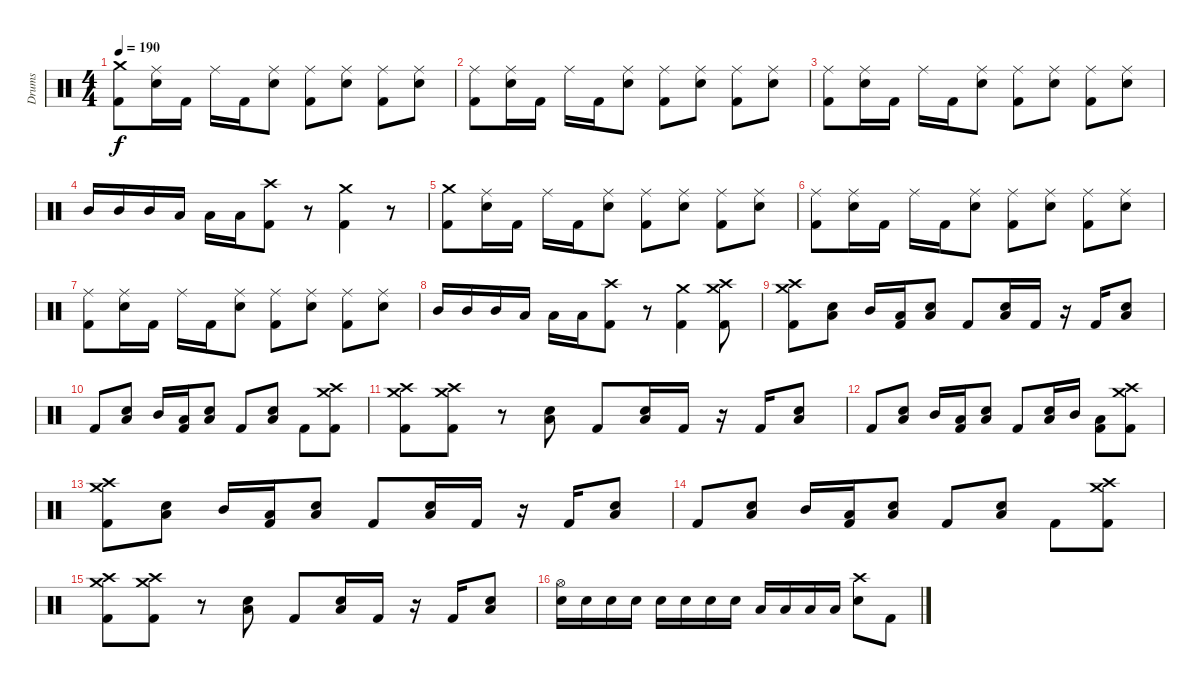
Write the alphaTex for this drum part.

\track ("Drums" "Drums") {instrument percussion}
\staff {score}
\articulation defaults
\ts (4 4)
\tempo 190
\clef neutral
\ks c
("Crash medium (hit)" "Kick (hit) 2").8{dy f} ("Ride (middle)" "Electric Snare (hit)").16 "Kick (hit) 2".16 "Ride (middle)".16 "Kick (hit) 2".16 ("Ride (middle)" "Electric Snare (hit)").8 ("Ride (middle)" "Kick (hit) 2").8 ("Ride (middle)" "Electric Snare (hit)").8 ("Ride (middle)" "Kick (hit) 2").8 ("Ride (middle)" "Electric Snare (hit)").8 |
("Ride (middle)" "Kick (hit) 2").8 ("Ride (middle)" "Electric Snare (hit)").16 "Kick (hit) 2".16 "Ride (middle)".16 "Kick (hit) 2".16 ("Ride (middle)" "Electric Snare (hit)").8 ("Ride (middle)" "Kick (hit) 2").8 ("Ride (middle)" "Electric Snare (hit)").8 ("Ride (middle)" "Kick (hit) 2").8 ("Ride (middle)" "Electric Snare (hit)").8 |
("Ride (middle)" "Kick (hit) 2").8 ("Ride (middle)" "Electric Snare (hit)").16 "Kick (hit) 2".16 "Ride (middle)".16 "Kick (hit) 2".16 ("Ride (middle)" "Electric Snare (hit)").8 ("Ride (middle)" "Kick (hit) 2").8 ("Ride (middle)" "Electric Snare (hit)").8 ("Ride (middle)" "Kick (hit) 2").8 ("Ride (middle)" "Electric Snare (hit)").8 |
"Mid Tom (hit)".16 "Mid Tom (hit)".16 "Mid Tom (hit)".16 "Low Floor Tom (hit)".16 "Low Floor Tom (hit)".16 "Low Floor Tom (hit)".16 ("Crash high (hit)" "Kick (hit) 2").8 r.8 ("Crash medium (hit)" "Kick (hit) 2").4 r.8 |
("Crash medium (hit)" "Kick (hit) 2").8 ("Ride (middle)" "Electric Snare (hit)").16 "Kick (hit) 2".16 "Ride (middle)".16 "Kick (hit) 2".16 ("Ride (middle)" "Electric Snare (hit)").8 ("Ride (middle)" "Kick (hit) 2").8 ("Ride (middle)" "Electric Snare (hit)").8 ("Ride (middle)" "Kick (hit) 2").8 ("Ride (middle)" "Electric Snare (hit)").8 |
("Ride (middle)" "Kick (hit) 2").8 ("Ride (middle)" "Electric Snare (hit)").16 "Kick (hit) 2".16 "Ride (middle)".16 "Kick (hit) 2".16 ("Ride (middle)" "Electric Snare (hit)").8 ("Ride (middle)" "Kick (hit) 2").8 ("Ride (middle)" "Electric Snare (hit)").8 ("Ride (middle)" "Kick (hit) 2").8 ("Ride (middle)" "Electric Snare (hit)").8 |
("Ride (middle)" "Kick (hit) 2").8 ("Ride (middle)" "Electric Snare (hit)").16 "Kick (hit) 2".16 "Ride (middle)".16 "Kick (hit) 2".16 ("Ride (middle)" "Electric Snare (hit)").8 ("Ride (middle)" "Kick (hit) 2").8 ("Ride (middle)" "Electric Snare (hit)").8 ("Ride (middle)" "Kick (hit) 2").8 ("Ride (middle)" "Electric Snare (hit)").8 |
"Mid Tom (hit)".16 "Mid Tom (hit)".16 "Mid Tom (hit)".16 "Low Floor Tom (hit)".16 "Low Floor Tom (hit)".16 "Low Floor Tom (hit)".16 ("Crash high (hit)" "Kick (hit) 2").8 r.8 ("Crash medium (hit)" "Kick (hit) 2").4 ("Crash medium (hit)" "Crash high (hit)" "Kick (hit) 2").8 |
("Crash medium (hit)" "Crash high (hit)" "Kick (hit) 2").8 ("Electric Snare (hit)" "Low Floor Tom (hit)").8 "Mid Tom (hit)".16 ("Low Floor Tom (hit)" "Kick (hit) 2").16 ("Electric Snare (hit)" "Low Floor Tom (hit)").8 "Kick (hit) 2".8 ("Electric Snare (hit)" "Low Floor Tom (hit)").16 "Kick (hit) 2".16 r.16 "Kick (hit) 2".16 ("Electric Snare (hit)" "Low Floor Tom (hit)").8 |
"Kick (hit) 2".8 ("Electric Snare (hit)" "Low Floor Tom (hit)").8 "Mid Tom (hit)".16 ("Low Floor Tom (hit)" "Kick (hit) 2").16 ("Electric Snare (hit)" "Low Floor Tom (hit)").8 "Kick (hit) 2".8 ("Electric Snare (hit)" "Low Floor Tom (hit)").8 "Kick (hit) 2".8 ("Crash medium (hit)" "Crash high (hit)" "Kick (hit) 2").8 |
("Crash medium (hit)" "Crash high (hit)" "Kick (hit) 2").8 ("Crash medium (hit)" "Crash high (hit)" "Kick (hit) 2").8 r.8 ("Electric Snare (hit)" "Low Floor Tom (hit)").8 "Kick (hit) 2".8 ("Electric Snare (hit)" "Low Floor Tom (hit)").16 "Kick (hit) 2".16 r.16 "Kick (hit) 2".16 ("Electric Snare (hit)" "Low Floor Tom (hit)").8 |
"Kick (hit) 2".8 ("Electric Snare (hit)" "Low Floor Tom (hit)").8 "Mid Tom (hit)".16 ("Low Floor Tom (hit)" "Kick (hit) 2").16 ("Electric Snare (hit)" "Low Floor Tom (hit)").8 "Kick (hit) 2".8 ("Electric Snare (hit)" "Low Floor Tom (hit)").16 "Mid Tom (hit)".16 ("Low Floor Tom (hit)" "Kick (hit) 2").8 ("Crash medium (hit)" "Crash high (hit)" "Kick (hit) 2").8 |
("Crash medium (hit)" "Crash high (hit)" "Kick (hit) 2").8 ("Electric Snare (hit)" "Low Floor Tom (hit)").8 "Mid Tom (hit)".16 ("Low Floor Tom (hit)" "Kick (hit) 2").16 ("Electric Snare (hit)" "Low Floor Tom (hit)").8 "Kick (hit) 2".8 ("Electric Snare (hit)" "Low Floor Tom (hit)").16 "Kick (hit) 2".16 r.16 "Kick (hit) 2".16 ("Electric Snare (hit)" "Low Floor Tom (hit)").8 |
"Kick (hit) 2".8 ("Electric Snare (hit)" "Low Floor Tom (hit)").8 "Mid Tom (hit)".16 ("Low Floor Tom (hit)" "Kick (hit) 2").16 ("Electric Snare (hit)" "Low Floor Tom (hit)").8 "Kick (hit) 2".8 ("Electric Snare (hit)" "Low Floor Tom (hit)").8 "Kick (hit) 2".8 ("Crash medium (hit)" "Crash high (hit)" "Kick (hit) 2").8 |
("Crash medium (hit)" "Crash high (hit)" "Kick (hit) 2").8 ("Crash medium (hit)" "Crash high (hit)" "Kick (hit) 2").8 r.8 ("Electric Snare (hit)" "Low Floor Tom (hit)").8 "Kick (hit) 2".8 ("Electric Snare (hit)" "Low Floor Tom (hit)").16 "Kick (hit) 2".16 r.16 "Kick (hit) 2".16 ("Electric Snare (hit)" "Low Floor Tom (hit)").8 |
("Hi-Hat (open)" "Electric Snare (hit)").16 "Electric Snare (hit)".16 "Electric Snare (hit)".16 "Electric Snare (hit)".16 "Electric Snare (hit)".16 "Electric Snare (hit)".16 "Electric Snare (hit)".16 "Electric Snare (hit)".16 "Low Tom (hit)".16 "Low Tom (hit)".16 "Low Tom (hit)".16 "Low Tom (hit)".16 ("Crash high (hit)" "Electric Snare (hit)").8 "Kick (hit) 2".8
